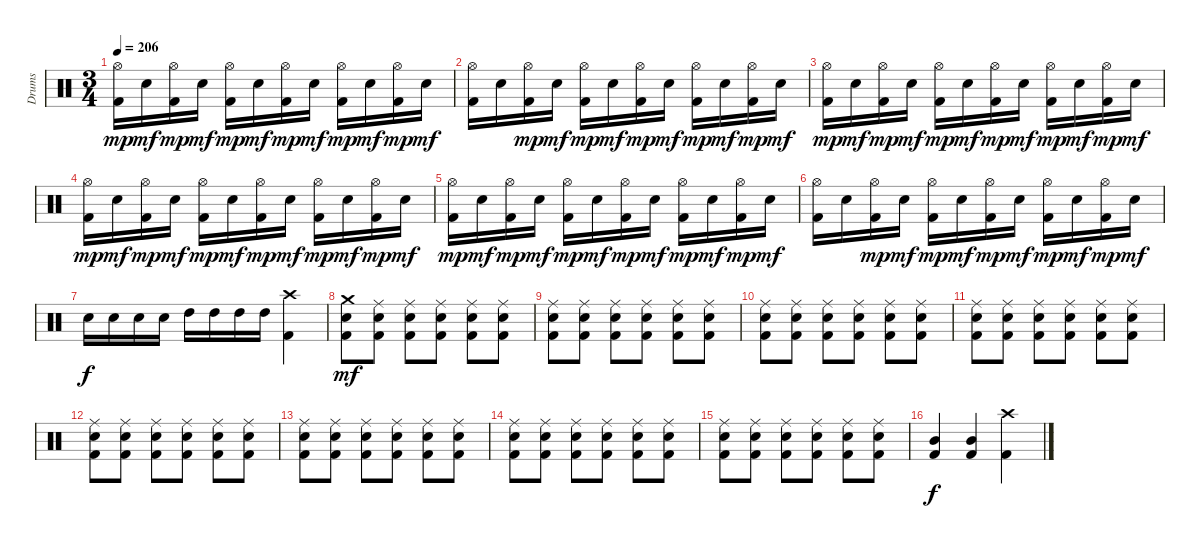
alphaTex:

\track ("Drums" "Drums") {instrument percussion}
\staff {score}
\articulation defaults
\ts (3 4)
\tempo 206
\clef neutral
\ks c
("Hi-Hat (open)" "Kick (hit) 2").16{dy mp} "Electric Snare (hit)".16{dy mf} ("Hi-Hat (open)" "Kick (hit) 2").16{dy mp} "Electric Snare (hit)".16{dy mf} ("Hi-Hat (open)" "Kick (hit) 2").16{dy mp} "Electric Snare (hit)".16{dy mf} ("Hi-Hat (open)" "Kick (hit) 2").16{dy mp} "Electric Snare (hit)".16{dy mf} ("Hi-Hat (open)" "Kick (hit) 2").16{dy mp} "Electric Snare (hit)".16{dy mf} ("Hi-Hat (open)" "Kick (hit) 2").16{dy mp} "Electric Snare (hit)".16{dy mf} |
("Hi-Hat (open)" "Kick (hit) 2").16 "Electric Snare (hit)".16 ("Hi-Hat (open)" "Kick (hit) 2").16{dy mp} "Electric Snare (hit)".16{dy mf} ("Hi-Hat (open)" "Kick (hit) 2").16{dy mp} "Electric Snare (hit)".16{dy mf} ("Hi-Hat (open)" "Kick (hit) 2").16{dy mp} "Electric Snare (hit)".16{dy mf} ("Hi-Hat (open)" "Kick (hit) 2").16{dy mp} "Electric Snare (hit)".16{dy mf} ("Hi-Hat (open)" "Kick (hit) 2").16{dy mp} "Electric Snare (hit)".16{dy mf} |
("Hi-Hat (open)" "Kick (hit) 2").16{dy mp} "Electric Snare (hit)".16{dy mf} ("Hi-Hat (open)" "Kick (hit) 2").16{dy mp} "Electric Snare (hit)".16{dy mf} ("Hi-Hat (open)" "Kick (hit) 2").16{dy mp} "Electric Snare (hit)".16{dy mf} ("Hi-Hat (open)" "Kick (hit) 2").16{dy mp} "Electric Snare (hit)".16{dy mf} ("Hi-Hat (open)" "Kick (hit) 2").16{dy mp} "Electric Snare (hit)".16{dy mf} ("Hi-Hat (open)" "Kick (hit) 2").16{dy mp} "Electric Snare (hit)".16{dy mf} |
("Hi-Hat (open)" "Kick (hit) 2").16{dy mp} "Electric Snare (hit)".16{dy mf} ("Hi-Hat (open)" "Kick (hit) 2").16{dy mp} "Electric Snare (hit)".16{dy mf} ("Hi-Hat (open)" "Kick (hit) 2").16{dy mp} "Electric Snare (hit)".16{dy mf} ("Hi-Hat (open)" "Kick (hit) 2").16{dy mp} "Electric Snare (hit)".16{dy mf} ("Hi-Hat (open)" "Kick (hit) 2").16{dy mp} "Electric Snare (hit)".16{dy mf} ("Hi-Hat (open)" "Kick (hit) 2").16{dy mp} "Electric Snare (hit)".16{dy mf} |
("Hi-Hat (open)" "Kick (hit) 2").16{dy mp} "Electric Snare (hit)".16{dy mf} ("Hi-Hat (open)" "Kick (hit) 2").16{dy mp} "Electric Snare (hit)".16{dy mf} ("Hi-Hat (open)" "Kick (hit) 2").16{dy mp} "Electric Snare (hit)".16{dy mf} ("Hi-Hat (open)" "Kick (hit) 2").16{dy mp} "Electric Snare (hit)".16{dy mf} ("Hi-Hat (open)" "Kick (hit) 2").16{dy mp} "Electric Snare (hit)".16{dy mf} ("Hi-Hat (open)" "Kick (hit) 2").16{dy mp} "Electric Snare (hit)".16{dy mf} |
("Hi-Hat (open)" "Kick (hit) 2").16 "Electric Snare (hit)".16 ("Hi-Hat (open)" "Kick (hit) 2").16{dy mp} "Electric Snare (hit)".16{dy mf} ("Hi-Hat (open)" "Kick (hit) 2").16{dy mp} "Electric Snare (hit)".16{dy mf} ("Hi-Hat (open)" "Kick (hit) 2").16{dy mp} "Electric Snare (hit)".16{dy mf} ("Hi-Hat (open)" "Kick (hit) 2").16{dy mp} "Electric Snare (hit)".16{dy mf} ("Hi-Hat (open)" "Kick (hit) 2").16{dy mp} "Electric Snare (hit)".16{dy mf} |
"Electric Snare (hit)".16{dy f} "Electric Snare (hit)".16 "Electric Snare (hit)".16 "Electric Snare (hit)".16 "High Tom (hit)".16 "High Tom (hit)".16 "High Tom (hit)".16 "High Tom (hit)".16 ("Crash high (hit)" "Kick (hit) 2").4 |
("Crash medium (hit)" "Electric Snare (hit)" "Kick (hit) 2").8{dy mf} ("Ride (middle)" "Electric Snare (hit)" "Kick (hit) 2").8 ("Ride (middle)" "Electric Snare (hit)" "Kick (hit) 2").8 ("Ride (middle)" "Electric Snare (hit)" "Kick (hit) 2").8 ("Ride (middle)" "Electric Snare (hit)" "Kick (hit) 2").8 ("Ride (middle)" "Electric Snare (hit)" "Kick (hit) 2").8 |
("Ride (middle)" "Electric Snare (hit)" "Kick (hit) 2").8 ("Ride (middle)" "Electric Snare (hit)" "Kick (hit) 2").8 ("Ride (middle)" "Electric Snare (hit)" "Kick (hit) 2").8 ("Ride (middle)" "Electric Snare (hit)" "Kick (hit) 2").8 ("Ride (middle)" "Electric Snare (hit)" "Kick (hit) 2").8 ("Ride (middle)" "Electric Snare (hit)" "Kick (hit) 2").8 |
("Ride (middle)" "Electric Snare (hit)" "Kick (hit) 2").8 ("Ride (middle)" "Electric Snare (hit)" "Kick (hit) 2").8 ("Ride (middle)" "Electric Snare (hit)" "Kick (hit) 2").8 ("Ride (middle)" "Electric Snare (hit)" "Kick (hit) 2").8 ("Ride (middle)" "Electric Snare (hit)" "Kick (hit) 2").8 ("Ride (middle)" "Electric Snare (hit)" "Kick (hit) 2").8 |
("Ride (middle)" "Electric Snare (hit)" "Kick (hit) 2").8 ("Ride (middle)" "Electric Snare (hit)" "Kick (hit) 2").8 ("Ride (middle)" "Electric Snare (hit)" "Kick (hit) 2").8 ("Ride (middle)" "Electric Snare (hit)" "Kick (hit) 2").8 ("Ride (middle)" "Electric Snare (hit)" "Kick (hit) 2").8 ("Ride (middle)" "Electric Snare (hit)" "Kick (hit) 2").8 |
("Ride (middle)" "Electric Snare (hit)" "Kick (hit) 2").8 ("Ride (middle)" "Electric Snare (hit)" "Kick (hit) 2").8 ("Ride (middle)" "Electric Snare (hit)" "Kick (hit) 2").8 ("Ride (middle)" "Electric Snare (hit)" "Kick (hit) 2").8 ("Ride (middle)" "Electric Snare (hit)" "Kick (hit) 2").8 ("Ride (middle)" "Electric Snare (hit)" "Kick (hit) 2").8 |
("Ride (middle)" "Electric Snare (hit)" "Kick (hit) 2").8 ("Ride (middle)" "Electric Snare (hit)" "Kick (hit) 2").8 ("Ride (middle)" "Electric Snare (hit)" "Kick (hit) 2").8 ("Ride (middle)" "Electric Snare (hit)" "Kick (hit) 2").8 ("Ride (middle)" "Electric Snare (hit)" "Kick (hit) 2").8 ("Ride (middle)" "Electric Snare (hit)" "Kick (hit) 2").8 |
("Ride (middle)" "Electric Snare (hit)" "Kick (hit) 2").8 ("Ride (middle)" "Electric Snare (hit)" "Kick (hit) 2").8 ("Ride (middle)" "Electric Snare (hit)" "Kick (hit) 2").8 ("Ride (middle)" "Electric Snare (hit)" "Kick (hit) 2").8 ("Ride (middle)" "Electric Snare (hit)" "Kick (hit) 2").8 ("Ride (middle)" "Electric Snare (hit)" "Kick (hit) 2").8 |
("Ride (middle)" "Electric Snare (hit)" "Kick (hit) 2").8 ("Ride (middle)" "Electric Snare (hit)" "Kick (hit) 2").8 ("Ride (middle)" "Electric Snare (hit)" "Kick (hit) 2").8 ("Ride (middle)" "Electric Snare (hit)" "Kick (hit) 2").8 ("Ride (middle)" "Electric Snare (hit)" "Kick (hit) 2").8 ("Ride (middle)" "Electric Snare (hit)" "Kick (hit) 2").8 |
("Mid Tom (hit)" "Kick (hit) 2").4{dy f} ("Mid Tom (hit)" "Kick (hit) 2").4 ("Crash high (hit)" "Kick (hit) 2").4
